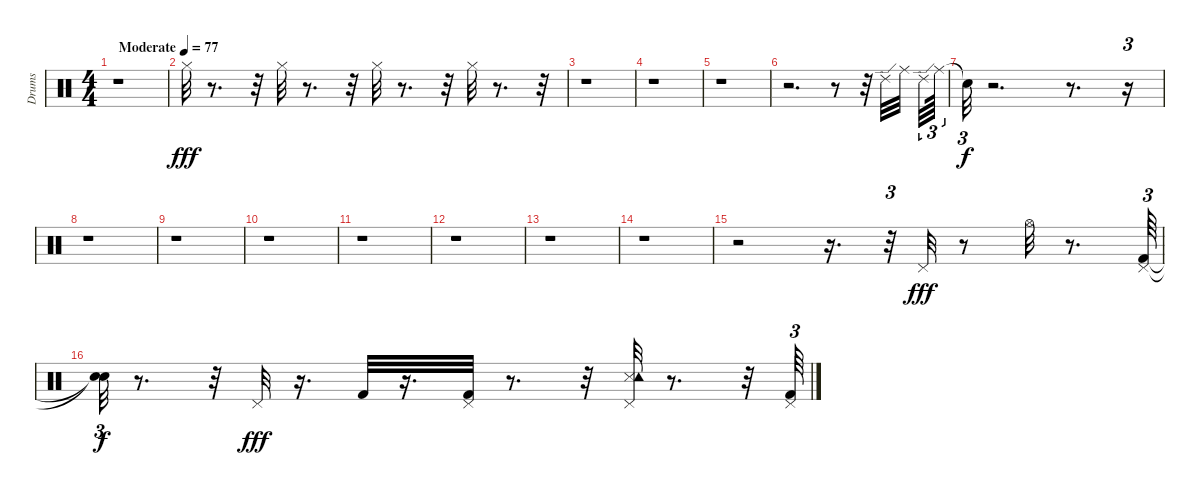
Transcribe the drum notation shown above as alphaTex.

\track ("Drums   " "Drums   ") {instrument percussion}
\staff {score}
\articulation defaults
\ts (4 4)
\tempo (77 "Moderate")
\clef neutral
\ks c
r.1{dy fff} |
"Hi-Hat (closed)".32 r.8{d} r.32 "Hi-Hat (closed)".32 r.8{d} r.32 "Hi-Hat (closed)".32 r.8{d} r.32 "Hi-Hat (closed)".32 r.8{d} r.32 |
r.1 |
r.1 |
r.1 |
r.2{d} r.8 r.32 "Ride (edge) 2".32 "Ride (middle)".32 "Ride (edge) 2".32{tu (3 2)} "Ride (middle)".64{tu (3 2)} |
"Snare (hit)"{t}.32{tu (3 2) dy f} r.2{d} r.8{d} r.16{tu (3 2)} |
r.1 |
r.1 |
r.1 |
r.1 |
r.1 |
r.1 |
r.1 |
r.2 r.16{d} r.32{tu (3 2)} "Pedal Hi-Hat (hit)".32{dy fff} r.8 "Hi-Hat (open)".32 r.8{d} ("Kick (hit) 2" "Pedal Hi-Hat (hit)").64{tu (3 2)} |
("Snare (hit)"{t} "Snare (hit)"{t}).32{tu (3 2) dy f} r.8{d} r.32 "Pedal Hi-Hat (hit)".32{dy fff} r.16{d} "Kick (hit) 2".32 r.16{d} ("Kick (hit) 2" "Pedal Hi-Hat (hit)").32 r.8{d} r.32 ("Snare (side stick) 3" "Pedal Hi-Hat (hit)" "Tambourine (hit)").32 r.8{d} r.32 ("Kick (hit) 2" "Pedal Hi-Hat (hit)").64{tu (3 2)}
